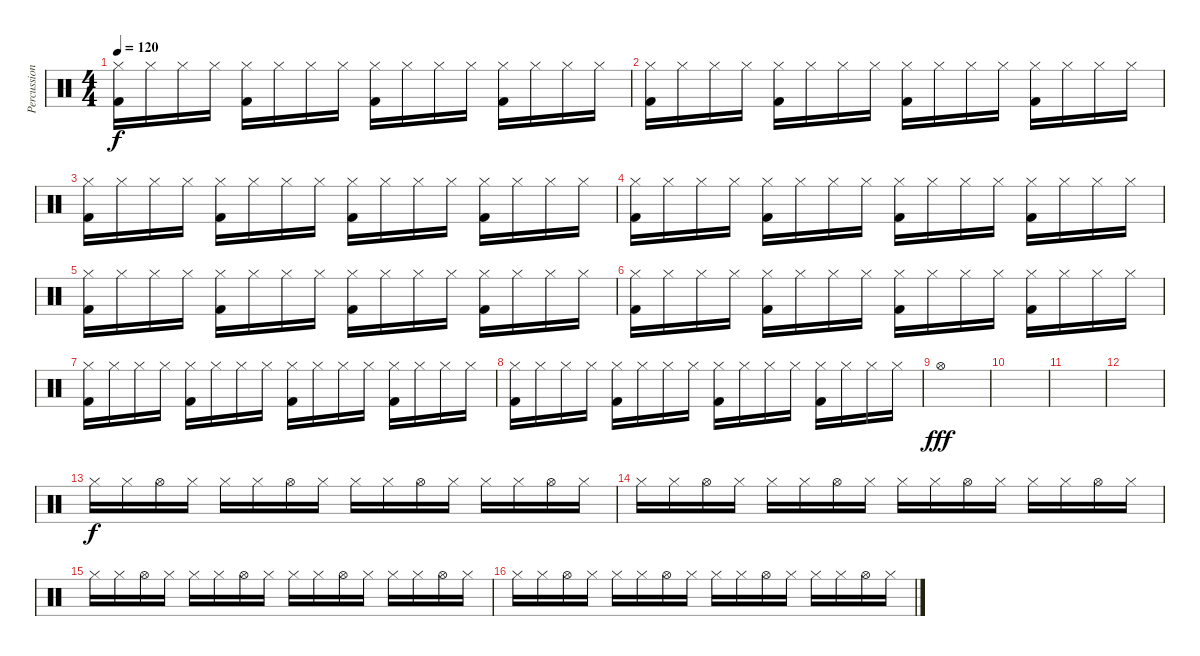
\track ("Percussion" "Percussion") {instrument percussion}
\staff {score}
\articulation defaults
\ts (4 4)
\tempo 120
\clef neutral
\ks c
("Hi-Hat (closed)" "Kick (hit) 2").16{dy f} "Hi-Hat (closed)".16 "Hi-Hat (closed)".16 "Hi-Hat (closed)".16 ("Hi-Hat (closed)" "Kick (hit) 2").16 "Hi-Hat (closed)".16 "Hi-Hat (closed)".16 "Hi-Hat (closed)".16 ("Hi-Hat (closed)" "Kick (hit) 2").16 "Hi-Hat (closed)".16 "Hi-Hat (closed)".16 "Hi-Hat (closed)".16 ("Hi-Hat (closed)" "Kick (hit) 2").16 "Hi-Hat (closed)".16 "Hi-Hat (closed)".16 "Hi-Hat (closed)".16 |
("Hi-Hat (closed)" "Kick (hit) 2").16 "Hi-Hat (closed)".16 "Hi-Hat (closed)".16 "Hi-Hat (closed)".16 ("Hi-Hat (closed)" "Kick (hit) 2").16 "Hi-Hat (closed)".16 "Hi-Hat (closed)".16 "Hi-Hat (closed)".16 ("Hi-Hat (closed)" "Kick (hit) 2").16 "Hi-Hat (closed)".16 "Hi-Hat (closed)".16 "Hi-Hat (closed)".16 ("Hi-Hat (closed)" "Kick (hit) 2").16 "Hi-Hat (closed)".16 "Hi-Hat (closed)".16 "Hi-Hat (closed)".16 |
("Hi-Hat (closed)" "Kick (hit) 2").16 "Hi-Hat (closed)".16 "Hi-Hat (closed)".16 "Hi-Hat (closed)".16 ("Hi-Hat (closed)" "Kick (hit) 2").16 "Hi-Hat (closed)".16 "Hi-Hat (closed)".16 "Hi-Hat (closed)".16 ("Hi-Hat (closed)" "Kick (hit) 2").16 "Hi-Hat (closed)".16 "Hi-Hat (closed)".16 "Hi-Hat (closed)".16 ("Hi-Hat (closed)" "Kick (hit) 2").16 "Hi-Hat (closed)".16 "Hi-Hat (closed)".16 "Hi-Hat (closed)".16 |
("Hi-Hat (closed)" "Kick (hit) 2").16 "Hi-Hat (closed)".16 "Hi-Hat (closed)".16 "Hi-Hat (closed)".16 ("Hi-Hat (closed)" "Kick (hit) 2").16 "Hi-Hat (closed)".16 "Hi-Hat (closed)".16 "Hi-Hat (closed)".16 ("Hi-Hat (closed)" "Kick (hit) 2").16 "Hi-Hat (closed)".16 "Hi-Hat (closed)".16 "Hi-Hat (closed)".16 ("Hi-Hat (closed)" "Kick (hit) 2").16 "Hi-Hat (closed)".16 "Hi-Hat (closed)".16 "Hi-Hat (closed)".16 |
("Hi-Hat (closed)" "Kick (hit) 2").16 "Hi-Hat (closed)".16 "Hi-Hat (closed)".16 "Hi-Hat (closed)".16 ("Hi-Hat (closed)" "Kick (hit) 2").16 "Hi-Hat (closed)".16 "Hi-Hat (closed)".16 "Hi-Hat (closed)".16 ("Hi-Hat (closed)" "Kick (hit) 2").16 "Hi-Hat (closed)".16 "Hi-Hat (closed)".16 "Hi-Hat (closed)".16 ("Hi-Hat (closed)" "Kick (hit) 2").16 "Hi-Hat (closed)".16 "Hi-Hat (closed)".16 "Hi-Hat (closed)".16 |
("Hi-Hat (closed)" "Kick (hit) 2").16 "Hi-Hat (closed)".16 "Hi-Hat (closed)".16 "Hi-Hat (closed)".16 ("Hi-Hat (closed)" "Kick (hit) 2").16 "Hi-Hat (closed)".16 "Hi-Hat (closed)".16 "Hi-Hat (closed)".16 ("Hi-Hat (closed)" "Kick (hit) 2").16 "Hi-Hat (closed)".16 "Hi-Hat (closed)".16 "Hi-Hat (closed)".16 ("Hi-Hat (closed)" "Kick (hit) 2").16 "Hi-Hat (closed)".16 "Hi-Hat (closed)".16 "Hi-Hat (closed)".16 |
("Hi-Hat (closed)" "Kick (hit) 2").16 "Hi-Hat (closed)".16 "Hi-Hat (closed)".16 "Hi-Hat (closed)".16 ("Hi-Hat (closed)" "Kick (hit) 2").16 "Hi-Hat (closed)".16 "Hi-Hat (closed)".16 "Hi-Hat (closed)".16 ("Hi-Hat (closed)" "Kick (hit) 2").16 "Hi-Hat (closed)".16 "Hi-Hat (closed)".16 "Hi-Hat (closed)".16 ("Hi-Hat (closed)" "Kick (hit) 2").16 "Hi-Hat (closed)".16 "Hi-Hat (closed)".16 "Hi-Hat (closed)".16 |
("Hi-Hat (closed)" "Kick (hit) 2").16 "Hi-Hat (closed)".16 "Hi-Hat (closed)".16 "Hi-Hat (closed)".16 ("Hi-Hat (closed)" "Kick (hit) 2").16 "Hi-Hat (closed)".16 "Hi-Hat (closed)".16 "Hi-Hat (closed)".16 ("Hi-Hat (closed)" "Kick (hit) 2").16 "Hi-Hat (closed)".16 "Hi-Hat (closed)".16 "Hi-Hat (closed)".16 ("Hi-Hat (closed)" "Kick (hit) 2").16 "Hi-Hat (closed)".16 "Hi-Hat (closed)".16 "Hi-Hat (closed)".16 |
"Hi-Hat (open)".1{dy fff} |
|
|
|
"Hi-Hat (closed)".16{dy f} "Hi-Hat (closed)".16 "Hi-Hat (open)".16 "Hi-Hat (closed)".16 "Hi-Hat (closed)".16 "Hi-Hat (closed)".16 "Hi-Hat (open)".16 "Hi-Hat (closed)".16 "Hi-Hat (closed)".16 "Hi-Hat (closed)".16 "Hi-Hat (open)".16 "Hi-Hat (closed)".16 "Hi-Hat (closed)".16 "Hi-Hat (closed)".16 "Hi-Hat (open)".16 "Hi-Hat (closed)".16 |
"Hi-Hat (closed)".16 "Hi-Hat (closed)".16 "Hi-Hat (open)".16 "Hi-Hat (closed)".16 "Hi-Hat (closed)".16 "Hi-Hat (closed)".16 "Hi-Hat (open)".16 "Hi-Hat (closed)".16 "Hi-Hat (closed)".16 "Hi-Hat (closed)".16 "Hi-Hat (open)".16 "Hi-Hat (closed)".16 "Hi-Hat (closed)".16 "Hi-Hat (closed)".16 "Hi-Hat (open)".16 "Hi-Hat (closed)".16 |
"Hi-Hat (closed)".16 "Hi-Hat (closed)".16 "Hi-Hat (open)".16 "Hi-Hat (closed)".16 "Hi-Hat (closed)".16 "Hi-Hat (closed)".16 "Hi-Hat (open)".16 "Hi-Hat (closed)".16 "Hi-Hat (closed)".16 "Hi-Hat (closed)".16 "Hi-Hat (open)".16 "Hi-Hat (closed)".16 "Hi-Hat (closed)".16 "Hi-Hat (closed)".16 "Hi-Hat (open)".16 "Hi-Hat (closed)".16 |
"Hi-Hat (closed)".16 "Hi-Hat (closed)".16 "Hi-Hat (open)".16 "Hi-Hat (closed)".16 "Hi-Hat (closed)".16 "Hi-Hat (closed)".16 "Hi-Hat (open)".16 "Hi-Hat (closed)".16 "Hi-Hat (closed)".16 "Hi-Hat (closed)".16 "Hi-Hat (open)".16 "Hi-Hat (closed)".16 "Hi-Hat (closed)".16 "Hi-Hat (closed)".16 "Hi-Hat (open)".16 "Hi-Hat (closed)".16
